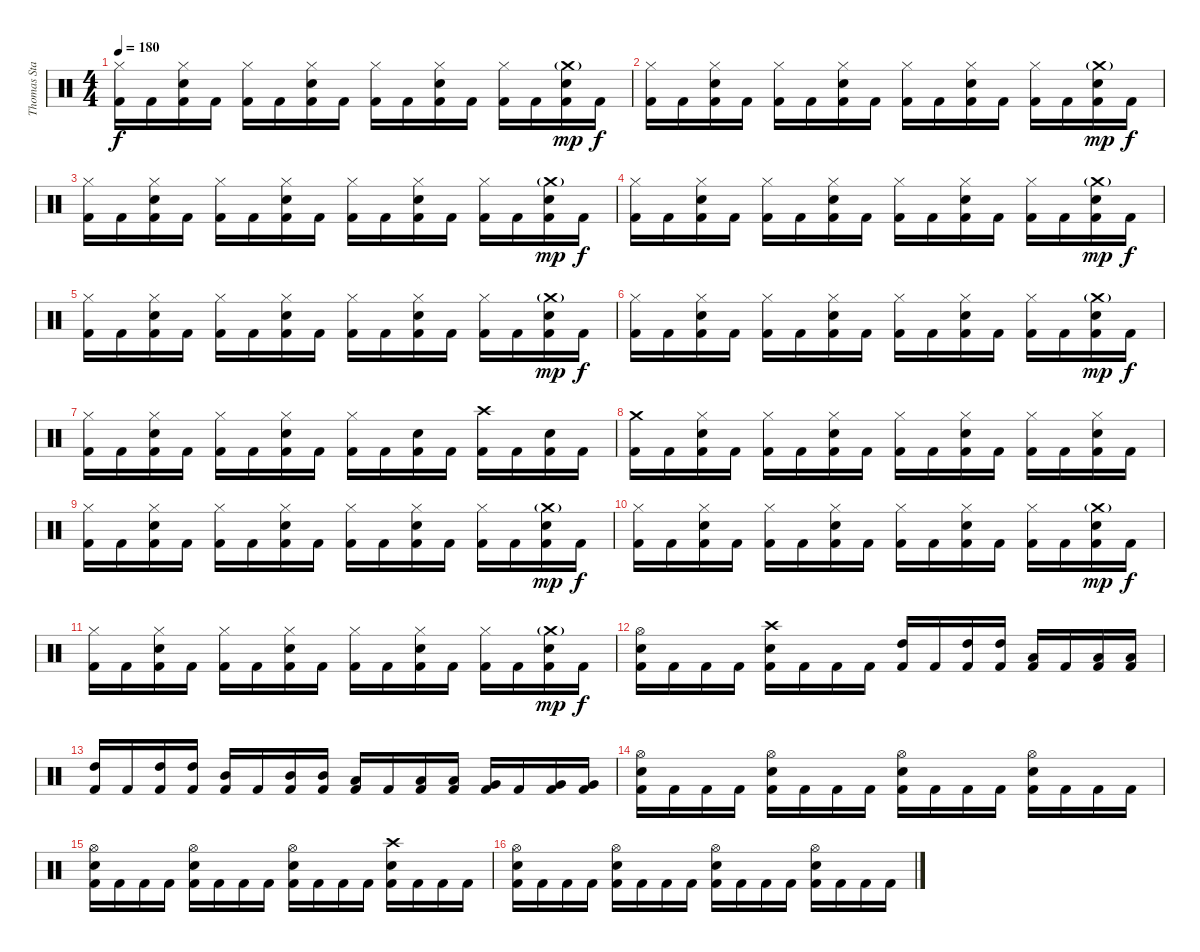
\track ("Thomas Stauch" "Thomas Sta") {instrument percussion}
\staff {score}
\articulation defaults
\ts (4 4)
\tempo 180
\clef neutral
\ks c
("Hi-Hat (closed)" "Kick (hit) 2").16{dy f} "Kick (hit) 2".16 ("Hi-Hat (closed)" "Electric Snare (hit)" "Kick (hit) 2").16 "Kick (hit) 2".16 ("Hi-Hat (closed)" "Kick (hit) 2").16 "Kick (hit) 2".16 ("Hi-Hat (closed)" "Electric Snare (hit)" "Kick (hit) 2").16 "Kick (hit) 2".16 ("Hi-Hat (closed)" "Kick (hit) 2").16 "Kick (hit) 2".16 ("Hi-Hat (closed)" "Electric Snare (hit)" "Kick (hit) 2").16 "Kick (hit) 2".16 ("Hi-Hat (closed)" "Kick (hit) 2").16 "Kick (hit) 2".16 ("Crash medium (hit)"{g} "Electric Snare (hit)" "Kick (hit) 2").16{dy mp} "Kick (hit) 2".16{dy f} |
("Hi-Hat (closed)" "Kick (hit) 2").16 "Kick (hit) 2".16 ("Hi-Hat (closed)" "Electric Snare (hit)" "Kick (hit) 2").16 "Kick (hit) 2".16 ("Hi-Hat (closed)" "Kick (hit) 2").16 "Kick (hit) 2".16 ("Hi-Hat (closed)" "Electric Snare (hit)" "Kick (hit) 2").16 "Kick (hit) 2".16 ("Hi-Hat (closed)" "Kick (hit) 2").16 "Kick (hit) 2".16 ("Hi-Hat (closed)" "Electric Snare (hit)" "Kick (hit) 2").16 "Kick (hit) 2".16 ("Hi-Hat (closed)" "Kick (hit) 2").16 "Kick (hit) 2".16 ("Crash medium (hit)"{g} "Electric Snare (hit)" "Kick (hit) 2").16{dy mp} "Kick (hit) 2".16{dy f} |
("Hi-Hat (closed)" "Kick (hit) 2").16 "Kick (hit) 2".16 ("Hi-Hat (closed)" "Electric Snare (hit)" "Kick (hit) 2").16 "Kick (hit) 2".16 ("Hi-Hat (closed)" "Kick (hit) 2").16 "Kick (hit) 2".16 ("Hi-Hat (closed)" "Electric Snare (hit)" "Kick (hit) 2").16 "Kick (hit) 2".16 ("Hi-Hat (closed)" "Kick (hit) 2").16 "Kick (hit) 2".16 ("Hi-Hat (closed)" "Electric Snare (hit)" "Kick (hit) 2").16 "Kick (hit) 2".16 ("Hi-Hat (closed)" "Kick (hit) 2").16 "Kick (hit) 2".16 ("Crash medium (hit)"{g} "Electric Snare (hit)" "Kick (hit) 2").16{dy mp} "Kick (hit) 2".16{dy f} |
("Hi-Hat (closed)" "Kick (hit) 2").16 "Kick (hit) 2".16 ("Hi-Hat (closed)" "Electric Snare (hit)" "Kick (hit) 2").16 "Kick (hit) 2".16 ("Hi-Hat (closed)" "Kick (hit) 2").16 "Kick (hit) 2".16 ("Hi-Hat (closed)" "Electric Snare (hit)" "Kick (hit) 2").16 "Kick (hit) 2".16 ("Hi-Hat (closed)" "Kick (hit) 2").16 "Kick (hit) 2".16 ("Hi-Hat (closed)" "Electric Snare (hit)" "Kick (hit) 2").16 "Kick (hit) 2".16 ("Hi-Hat (closed)" "Kick (hit) 2").16 "Kick (hit) 2".16 ("Crash medium (hit)"{g} "Electric Snare (hit)" "Kick (hit) 2").16{dy mp} "Kick (hit) 2".16{dy f} |
("Hi-Hat (closed)" "Kick (hit) 2").16 "Kick (hit) 2".16 ("Hi-Hat (closed)" "Electric Snare (hit)" "Kick (hit) 2").16 "Kick (hit) 2".16 ("Hi-Hat (closed)" "Kick (hit) 2").16 "Kick (hit) 2".16 ("Hi-Hat (closed)" "Electric Snare (hit)" "Kick (hit) 2").16 "Kick (hit) 2".16 ("Hi-Hat (closed)" "Kick (hit) 2").16 "Kick (hit) 2".16 ("Hi-Hat (closed)" "Electric Snare (hit)" "Kick (hit) 2").16 "Kick (hit) 2".16 ("Hi-Hat (closed)" "Kick (hit) 2").16 "Kick (hit) 2".16 ("Crash medium (hit)"{g} "Electric Snare (hit)" "Kick (hit) 2").16{dy mp} "Kick (hit) 2".16{dy f} |
("Hi-Hat (closed)" "Kick (hit) 2").16 "Kick (hit) 2".16 ("Hi-Hat (closed)" "Electric Snare (hit)" "Kick (hit) 2").16 "Kick (hit) 2".16 ("Hi-Hat (closed)" "Kick (hit) 2").16 "Kick (hit) 2".16 ("Hi-Hat (closed)" "Electric Snare (hit)" "Kick (hit) 2").16 "Kick (hit) 2".16 ("Hi-Hat (closed)" "Kick (hit) 2").16 "Kick (hit) 2".16 ("Hi-Hat (closed)" "Electric Snare (hit)" "Kick (hit) 2").16 "Kick (hit) 2".16 ("Hi-Hat (closed)" "Kick (hit) 2").16 "Kick (hit) 2".16 ("Crash medium (hit)"{g} "Electric Snare (hit)" "Kick (hit) 2").16{dy mp} "Kick (hit) 2".16{dy f} |
("Hi-Hat (closed)" "Kick (hit) 2").16 "Kick (hit) 2".16 ("Hi-Hat (closed)" "Electric Snare (hit)" "Kick (hit) 2").16 "Kick (hit) 2".16 ("Hi-Hat (closed)" "Kick (hit) 2").16 "Kick (hit) 2".16 ("Hi-Hat (closed)" "Electric Snare (hit)" "Kick (hit) 2").16 "Kick (hit) 2".16 ("Hi-Hat (closed)" "Kick (hit) 2").16 "Kick (hit) 2".16 ("Electric Snare (hit)" "Kick (hit) 2").16 "Kick (hit) 2".16 ("Crash high (hit)" "Kick (hit) 2").16 "Kick (hit) 2".16 ("Electric Snare (hit)" "Kick (hit) 2").16 "Kick (hit) 2".16 |
("Crash medium (hit)" "Kick (hit) 2").16 "Kick (hit) 2".16 ("Hi-Hat (closed)" "Electric Snare (hit)" "Kick (hit) 2").16 "Kick (hit) 2".16 ("Hi-Hat (closed)" "Kick (hit) 2").16 "Kick (hit) 2".16 ("Hi-Hat (closed)" "Electric Snare (hit)" "Kick (hit) 2").16 "Kick (hit) 2".16 ("Hi-Hat (closed)" "Kick (hit) 2").16 "Kick (hit) 2".16 ("Hi-Hat (closed)" "Electric Snare (hit)" "Kick (hit) 2").16 "Kick (hit) 2".16 ("Hi-Hat (closed)" "Kick (hit) 2").16 "Kick (hit) 2".16 ("Hi-Hat (closed)" "Electric Snare (hit)" "Kick (hit) 2").16 "Kick (hit) 2".16 |
("Hi-Hat (closed)" "Kick (hit) 2").16 "Kick (hit) 2".16 ("Hi-Hat (closed)" "Electric Snare (hit)" "Kick (hit) 2").16 "Kick (hit) 2".16 ("Hi-Hat (closed)" "Kick (hit) 2").16 "Kick (hit) 2".16 ("Hi-Hat (closed)" "Electric Snare (hit)" "Kick (hit) 2").16 "Kick (hit) 2".16 ("Hi-Hat (closed)" "Kick (hit) 2").16 "Kick (hit) 2".16 ("Hi-Hat (closed)" "Electric Snare (hit)" "Kick (hit) 2").16 "Kick (hit) 2".16 ("Hi-Hat (closed)" "Kick (hit) 2").16 "Kick (hit) 2".16 ("Crash medium (hit)"{g} "Electric Snare (hit)" "Kick (hit) 2").16{dy mp} "Kick (hit) 2".16{dy f} |
("Hi-Hat (closed)" "Kick (hit) 2").16 "Kick (hit) 2".16 ("Hi-Hat (closed)" "Electric Snare (hit)" "Kick (hit) 2").16 "Kick (hit) 2".16 ("Hi-Hat (closed)" "Kick (hit) 2").16 "Kick (hit) 2".16 ("Hi-Hat (closed)" "Electric Snare (hit)" "Kick (hit) 2").16 "Kick (hit) 2".16 ("Hi-Hat (closed)" "Kick (hit) 2").16 "Kick (hit) 2".16 ("Hi-Hat (closed)" "Electric Snare (hit)" "Kick (hit) 2").16 "Kick (hit) 2".16 ("Hi-Hat (closed)" "Kick (hit) 2").16 "Kick (hit) 2".16 ("Crash medium (hit)"{g} "Electric Snare (hit)" "Kick (hit) 2").16{dy mp} "Kick (hit) 2".16{dy f} |
("Hi-Hat (closed)" "Kick (hit) 2").16 "Kick (hit) 2".16 ("Hi-Hat (closed)" "Electric Snare (hit)" "Kick (hit) 2").16 "Kick (hit) 2".16 ("Hi-Hat (closed)" "Kick (hit) 2").16 "Kick (hit) 2".16 ("Hi-Hat (closed)" "Electric Snare (hit)" "Kick (hit) 2").16 "Kick (hit) 2".16 ("Hi-Hat (closed)" "Kick (hit) 2").16 "Kick (hit) 2".16 ("Hi-Hat (closed)" "Electric Snare (hit)" "Kick (hit) 2").16 "Kick (hit) 2".16 ("Hi-Hat (closed)" "Kick (hit) 2").16 "Kick (hit) 2".16 ("Crash medium (hit)"{g} "Electric Snare (hit)" "Kick (hit) 2").16{dy mp} "Kick (hit) 2".16{dy f} |
("Hi-Hat (open)" "Electric Snare (hit)" "Kick (hit) 2").16 "Kick (hit) 2".16 "Kick (hit) 2".16 "Kick (hit) 2".16 ("Crash high (hit)" "Electric Snare (hit)" "Kick (hit) 2").16 "Kick (hit) 2".16 "Kick (hit) 2".16 "Kick (hit) 2".16 ("High Tom (hit)" "Kick (hit) 2").16 "Kick (hit) 2".16 ("High Tom (hit)" "Kick (hit) 2").16 ("High Tom (hit)" "Kick (hit) 2").16 ("Low Tom (hit)" "Kick (hit) 2").16 "Kick (hit) 2".16 ("Low Tom (hit)" "Kick (hit) 2").16 ("Low Tom (hit)" "Kick (hit) 2").16 |
("High Tom (hit)" "Kick (hit) 2").16 "Kick (hit) 2".16 ("High Tom (hit)" "Kick (hit) 2").16 ("High Tom (hit)" "Kick (hit) 2").16 ("Mid Tom (hit)" "Kick (hit) 2").16 "Kick (hit) 2".16 ("Mid Tom (hit)" "Kick (hit) 2").16 ("Mid Tom (hit)" "Kick (hit) 2").16 ("Low Tom (hit)" "Kick (hit) 2").16 "Kick (hit) 2".16 ("Low Tom (hit)" "Kick (hit) 2").16 ("Low Tom (hit)" "Kick (hit) 2").16 ("Very Low Tom (hit)" "Kick (hit) 2").16 "Kick (hit) 2".16 ("Very Low Tom (hit)" "Kick (hit) 2").16 ("Very Low Tom (hit)" "Kick (hit) 2").16 |
("Hi-Hat (open)" "Electric Snare (hit)" "Kick (hit) 2").16 "Kick (hit) 2".16 "Kick (hit) 2".16 "Kick (hit) 2".16 ("Hi-Hat (open)" "Electric Snare (hit)" "Kick (hit) 2").16 "Kick (hit) 2".16 "Kick (hit) 2".16 "Kick (hit) 2".16 ("Hi-Hat (open)" "Electric Snare (hit)" "Kick (hit) 2").16 "Kick (hit) 2".16 "Kick (hit) 2".16 "Kick (hit) 2".16 ("Hi-Hat (open)" "Electric Snare (hit)" "Kick (hit) 2").16 "Kick (hit) 2".16 "Kick (hit) 2".16 "Kick (hit) 2".16 |
("Hi-Hat (open)" "Electric Snare (hit)" "Kick (hit) 2").16 "Kick (hit) 2".16 "Kick (hit) 2".16 "Kick (hit) 2".16 ("Hi-Hat (open)" "Electric Snare (hit)" "Kick (hit) 2").16 "Kick (hit) 2".16 "Kick (hit) 2".16 "Kick (hit) 2".16 ("Hi-Hat (open)" "Electric Snare (hit)" "Kick (hit) 2").16 "Kick (hit) 2".16 "Kick (hit) 2".16 "Kick (hit) 2".16 ("Crash high (hit)" "Electric Snare (hit)" "Kick (hit) 2").16 "Kick (hit) 2".16 "Kick (hit) 2".16 "Kick (hit) 2".16 |
("Hi-Hat (open)" "Electric Snare (hit)" "Kick (hit) 2").16 "Kick (hit) 2".16 "Kick (hit) 2".16 "Kick (hit) 2".16 ("Hi-Hat (open)" "Electric Snare (hit)" "Kick (hit) 2").16 "Kick (hit) 2".16 "Kick (hit) 2".16 "Kick (hit) 2".16 ("Hi-Hat (open)" "Electric Snare (hit)" "Kick (hit) 2").16 "Kick (hit) 2".16 "Kick (hit) 2".16 "Kick (hit) 2".16 ("Hi-Hat (open)" "Electric Snare (hit)" "Kick (hit) 2").16 "Kick (hit) 2".16 "Kick (hit) 2".16 "Kick (hit) 2".16
